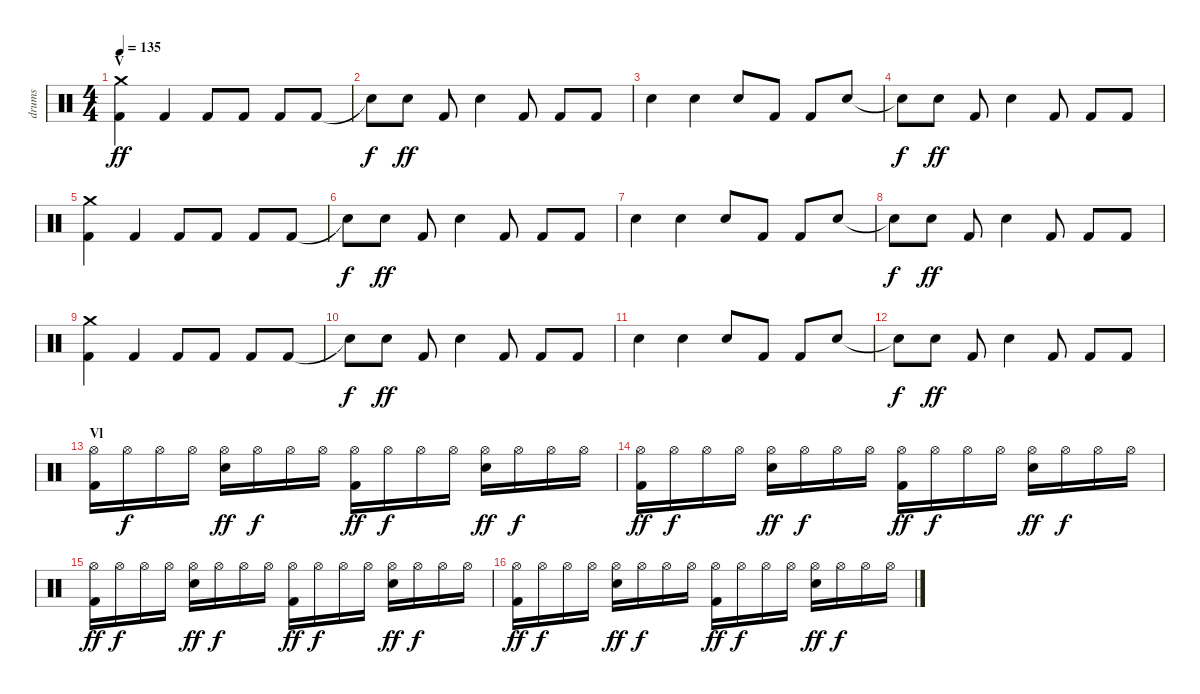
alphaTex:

\track ("drums" "drums") {instrument percussion}
\staff {score}
\articulation defaults
\ts (4 4)
\section ("" "V")
\tempo 135
\clef neutral
\ks c
("Crash medium (hit)" "Kick (hit) 2").4{dy ff} "Kick (hit) 2".4 "Kick (hit) 2".8 "Kick (hit) 2".8 "Kick (hit) 2".8 "Kick (hit) 2".8 |
"Snare (hit)"{t}.8{dy f} "Snare (hit) 2".8{dy ff} "Kick (hit) 2".8 "Snare (hit) 2".4 "Kick (hit) 2".8 "Kick (hit) 2".8 "Kick (hit) 2".8 |
"Snare (hit) 2".4 "Snare (hit) 2".4 "Snare (hit) 2".8 "Kick (hit) 2".8 "Kick (hit) 2".8 "Snare (hit) 2".8 |
"Snare (hit)"{t}.8{dy f} "Snare (hit) 2".8{dy ff} "Kick (hit) 2".8 "Snare (hit) 2".4 "Kick (hit) 2".8 "Kick (hit) 2".8 "Kick (hit) 2".8 |
("Crash medium (hit)" "Kick (hit) 2").4 "Kick (hit) 2".4 "Kick (hit) 2".8 "Kick (hit) 2".8 "Kick (hit) 2".8 "Kick (hit) 2".8 |
"Snare (hit)"{t}.8{dy f} "Snare (hit) 2".8{dy ff} "Kick (hit) 2".8 "Snare (hit) 2".4 "Kick (hit) 2".8 "Kick (hit) 2".8 "Kick (hit) 2".8 |
"Snare (hit) 2".4 "Snare (hit) 2".4 "Snare (hit) 2".8 "Kick (hit) 2".8 "Kick (hit) 2".8 "Snare (hit) 2".8 |
"Snare (hit)"{t}.8{dy f} "Snare (hit) 2".8{dy ff} "Kick (hit) 2".8 "Snare (hit) 2".4 "Kick (hit) 2".8 "Kick (hit) 2".8 "Kick (hit) 2".8 |
("Crash medium (hit)" "Kick (hit) 2").4 "Kick (hit) 2".4 "Kick (hit) 2".8 "Kick (hit) 2".8 "Kick (hit) 2".8 "Kick (hit) 2".8 |
"Snare (hit)"{t}.8{dy f} "Snare (hit) 2".8{dy ff} "Kick (hit) 2".8 "Snare (hit) 2".4 "Kick (hit) 2".8 "Kick (hit) 2".8 "Kick (hit) 2".8 |
"Snare (hit) 2".4 "Snare (hit) 2".4 "Snare (hit) 2".8 "Kick (hit) 2".8 "Kick (hit) 2".8 "Snare (hit) 2".8 |
"Snare (hit)"{t}.8{dy f} "Snare (hit) 2".8{dy ff} "Kick (hit) 2".8 "Snare (hit) 2".4 "Kick (hit) 2".8 "Kick (hit) 2".8 "Kick (hit) 2".8 |
\section ("" "Vl")
("Hi-Hat (open)" "Kick (hit) 2").16 "Hi-Hat (open)".16{dy f} "Hi-Hat (open)".16 "Hi-Hat (open)".16 ("Hi-Hat (open)" "Electric Snare (hit)").16{dy ff} "Hi-Hat (open)".16{dy f} "Hi-Hat (open)".16 "Hi-Hat (open)".16 ("Hi-Hat (open)" "Kick (hit) 2").16{dy ff} "Hi-Hat (open)".16{dy f} "Hi-Hat (open)".16 "Hi-Hat (open)".16 ("Hi-Hat (open)" "Electric Snare (hit)").16{dy ff} "Hi-Hat (open)".16{dy f} "Hi-Hat (open)".16 "Hi-Hat (open)".16 |
("Hi-Hat (open)" "Kick (hit) 2").16{dy ff} "Hi-Hat (open)".16{dy f} "Hi-Hat (open)".16 "Hi-Hat (open)".16 ("Hi-Hat (open)" "Electric Snare (hit)").16{dy ff} "Hi-Hat (open)".16{dy f} "Hi-Hat (open)".16 "Hi-Hat (open)".16 ("Hi-Hat (open)" "Kick (hit) 2").16{dy ff} "Hi-Hat (open)".16{dy f} "Hi-Hat (open)".16 "Hi-Hat (open)".16 ("Hi-Hat (open)" "Electric Snare (hit)").16{dy ff} "Hi-Hat (open)".16{dy f} "Hi-Hat (open)".16 "Hi-Hat (open)".16 |
("Hi-Hat (open)" "Kick (hit) 2").16{dy ff} "Hi-Hat (open)".16{dy f} "Hi-Hat (open)".16 "Hi-Hat (open)".16 ("Hi-Hat (open)" "Electric Snare (hit)").16{dy ff} "Hi-Hat (open)".16{dy f} "Hi-Hat (open)".16 "Hi-Hat (open)".16 ("Hi-Hat (open)" "Kick (hit) 2").16{dy ff} "Hi-Hat (open)".16{dy f} "Hi-Hat (open)".16 "Hi-Hat (open)".16 ("Hi-Hat (open)" "Electric Snare (hit)").16{dy ff} "Hi-Hat (open)".16{dy f} "Hi-Hat (open)".16 "Hi-Hat (open)".16 |
("Hi-Hat (open)" "Kick (hit) 2").16{dy ff} "Hi-Hat (open)".16{dy f} "Hi-Hat (open)".16 "Hi-Hat (open)".16 ("Hi-Hat (open)" "Electric Snare (hit)").16{dy ff} "Hi-Hat (open)".16{dy f} "Hi-Hat (open)".16 "Hi-Hat (open)".16 ("Hi-Hat (open)" "Kick (hit) 2").16{dy ff} "Hi-Hat (open)".16{dy f} "Hi-Hat (open)".16 "Hi-Hat (open)".16 ("Hi-Hat (open)" "Electric Snare (hit)").16{dy ff} "Hi-Hat (open)".16{dy f} "Hi-Hat (open)".16 "Hi-Hat (open)".16
